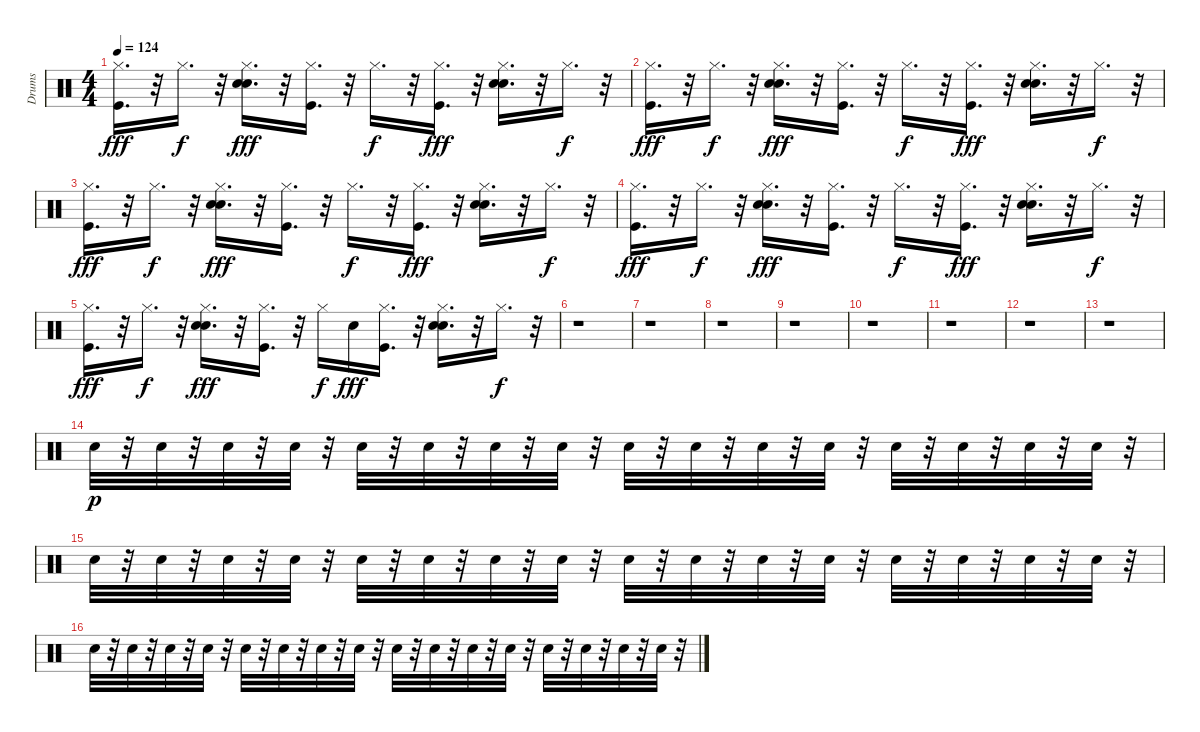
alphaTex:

\track ("Drums" "Drums") {instrument percussion}
\staff {score}
\articulation defaults
\ts (4 4)
\tempo 124
\clef neutral
\ks c
("Kick (hit)" "Hi-Hat (closed)").16{d dy fff} r.32 "Hi-Hat (closed)".16{d dy f} r.32 ("Snare (hit) 2" "Hand Clap (hit)" "Hi-Hat (closed)").16{d dy fff} r.32 ("Kick (hit)" "Hi-Hat (closed)").16{d} r.32 "Hi-Hat (closed)".16{d dy f} r.32 ("Kick (hit)" "Hi-Hat (closed)").16{d dy fff} r.32 ("Snare (hit) 2" "Hand Clap (hit)" "Hi-Hat (closed)").16{d} r.32 "Hi-Hat (closed)".16{d dy f} r.32 |
("Kick (hit)" "Hi-Hat (closed)").16{d dy fff} r.32 "Hi-Hat (closed)".16{d dy f} r.32 ("Snare (hit) 2" "Hand Clap (hit)" "Hi-Hat (closed)").16{d dy fff} r.32 ("Kick (hit)" "Hi-Hat (closed)").16{d} r.32 "Hi-Hat (closed)".16{d dy f} r.32 ("Kick (hit)" "Hi-Hat (closed)").16{d dy fff} r.32 ("Snare (hit) 2" "Hand Clap (hit)" "Hi-Hat (closed)").16{d} r.32 "Hi-Hat (closed)".16{d dy f} r.32 |
("Kick (hit)" "Hi-Hat (closed)").16{d dy fff} r.32 "Hi-Hat (closed)".16{d dy f} r.32 ("Snare (hit) 2" "Hand Clap (hit)" "Hi-Hat (closed)").16{d dy fff} r.32 ("Kick (hit)" "Hi-Hat (closed)").16{d} r.32 "Hi-Hat (closed)".16{d dy f} r.32 ("Kick (hit)" "Hi-Hat (closed)").16{d dy fff} r.32 ("Snare (hit) 2" "Hand Clap (hit)" "Hi-Hat (closed)").16{d} r.32 "Hi-Hat (closed)".16{d dy f} r.32 |
("Kick (hit)" "Hi-Hat (closed)").16{d dy fff} r.32 "Hi-Hat (closed)".16{d dy f} r.32 ("Snare (hit) 2" "Hand Clap (hit)" "Hi-Hat (closed)").16{d dy fff} r.32 ("Kick (hit)" "Hi-Hat (closed)").16{d} r.32 "Hi-Hat (closed)".16{d dy f} r.32 ("Kick (hit)" "Hi-Hat (closed)").16{d dy fff} r.32 ("Snare (hit) 2" "Hand Clap (hit)" "Hi-Hat (closed)").16{d} r.32 "Hi-Hat (closed)".16{d dy f} r.32 |
("Kick (hit)" "Hi-Hat (closed)").16{d dy fff} r.32 "Hi-Hat (closed)".16{d dy f} r.32 ("Snare (hit) 2" "Hand Clap (hit)" "Hi-Hat (closed)").16{d dy fff} r.32 ("Kick (hit)" "Hi-Hat (closed)").16{d} r.32 "Hi-Hat (closed)".16{dy f} "Snare (hit) 2".16{dy fff} ("Kick (hit)" "Hi-Hat (closed)").16{d} r.32 ("Snare (hit) 2" "Hand Clap (hit)" "Hi-Hat (closed)").16{d} r.32 "Hi-Hat (closed)".16{d dy f} r.32 |
r.1 |
r.1 |
r.1 |
r.1 |
r.1 |
r.1 |
r.1 |
r.1 |
"Snare (hit) 2".32{dy p} r.32 "Snare (hit) 2".32 r.32 "Snare (hit) 2".32 r.32 "Snare (hit) 2".32 r.32 "Snare (hit) 2".32 r.32 "Snare (hit) 2".32 r.32 "Snare (hit) 2".32 r.32 "Snare (hit) 2".32 r.32 "Snare (hit) 2".32 r.32 "Snare (hit) 2".32 r.32 "Snare (hit) 2".32 r.32 "Snare (hit) 2".32 r.32 "Snare (hit) 2".32 r.32 "Snare (hit) 2".32 r.32 "Snare (hit) 2".32 r.32 "Snare (hit) 2".32 r.32 |
"Snare (hit) 2".32 r.32 "Snare (hit) 2".32 r.32 "Snare (hit) 2".32 r.32 "Snare (hit) 2".32 r.32 "Snare (hit) 2".32 r.32 "Snare (hit) 2".32 r.32 "Snare (hit) 2".32 r.32 "Snare (hit) 2".32 r.32 "Snare (hit) 2".32 r.32 "Snare (hit) 2".32 r.32 "Snare (hit) 2".32 r.32 "Snare (hit) 2".32 r.32 "Snare (hit) 2".32 r.32 "Snare (hit) 2".32 r.32 "Snare (hit) 2".32 r.32 "Snare (hit) 2".32 r.32 |
"Snare (hit) 2".32 r.32 "Snare (hit) 2".32 r.32 "Snare (hit) 2".32 r.32 "Snare (hit) 2".32 r.32 "Snare (hit) 2".32 r.32 "Snare (hit) 2".32 r.32 "Snare (hit) 2".32 r.32 "Snare (hit) 2".32 r.32 "Snare (hit) 2".32 r.32 "Snare (hit) 2".32 r.32 "Snare (hit) 2".32 r.32 "Snare (hit) 2".32 r.32 "Snare (hit) 2".32 r.32 "Snare (hit) 2".32 r.32 "Snare (hit) 2".32 r.32 "Snare (hit) 2".32 r.32
